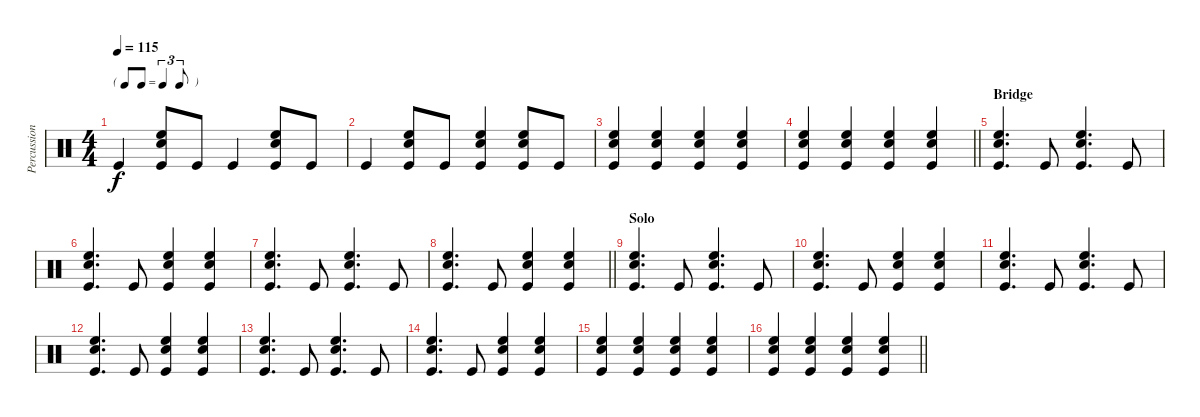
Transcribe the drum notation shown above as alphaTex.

\track ("Percussions" "Percussion") {instrument percussion}
\staff {score}
\articulation defaults
\ts (4 4)
\tf triplet8th
\tempo 115
\clef neutral
\ks c "Kick (hit)".4{dy f}
("High Floor Tom (hit)" "Snare (hit) 2" "Kick (hit)").8 "Kick (hit)".8 "Kick (hit)".4 ("High Floor Tom (hit)" "Snare (hit) 2" "Kick (hit)").8 "Kick (hit)".8 |
"Kick (hit)".4 ("High Floor Tom (hit)" "Snare (hit) 2" "Kick (hit)").8 "Kick (hit)".8 ("High Floor Tom (hit)" "Snare (hit) 2" "Kick (hit)").4 ("High Floor Tom (hit)" "Snare (hit) 2" "Kick (hit)").8 "Kick (hit)".8 |
("High Floor Tom (hit)" "Snare (hit) 2" "Kick (hit)").4 ("High Floor Tom (hit)" "Snare (hit) 2" "Kick (hit)").4 ("High Floor Tom (hit)" "Snare (hit) 2" "Kick (hit)").4 ("High Floor Tom (hit)" "Snare (hit) 2" "Kick (hit)").4 |
\barLineRight lightlight
("High Floor Tom (hit)" "Snare (hit) 2" "Kick (hit)").4 ("High Floor Tom (hit)" "Snare (hit) 2" "Kick (hit)").4 ("High Floor Tom (hit)" "Snare (hit) 2" "Kick (hit)").4 ("High Floor Tom (hit)" "Snare (hit) 2" "Kick (hit)").4 |
\section ("" "Bridge")
("High Floor Tom (hit)" "Snare (hit) 2" "Kick (hit)").4{d} "Kick (hit)".8 ("High Floor Tom (hit)" "Snare (hit) 2" "Kick (hit)").4{d} "Kick (hit)".8 |
("High Floor Tom (hit)" "Snare (hit) 2" "Kick (hit)").4{d} "Kick (hit)".8 ("High Floor Tom (hit)" "Snare (hit) 2" "Kick (hit)").4 ("High Floor Tom (hit)" "Snare (hit) 2" "Kick (hit)").4 |
("High Floor Tom (hit)" "Snare (hit) 2" "Kick (hit)").4{d} "Kick (hit)".8 ("High Floor Tom (hit)" "Snare (hit) 2" "Kick (hit)").4{d} "Kick (hit)".8 |
\barLineRight lightlight
("High Floor Tom (hit)" "Snare (hit) 2" "Kick (hit)").4{d} "Kick (hit)".8 ("High Floor Tom (hit)" "Snare (hit) 2" "Kick (hit)").4 ("High Floor Tom (hit)" "Snare (hit) 2" "Kick (hit)").4 |
\section ("" "Solo")
("High Floor Tom (hit)" "Snare (hit) 2" "Kick (hit)").4{d} "Kick (hit)".8 ("High Floor Tom (hit)" "Snare (hit) 2" "Kick (hit)").4{d} "Kick (hit)".8 |
("High Floor Tom (hit)" "Snare (hit) 2" "Kick (hit)").4{d} "Kick (hit)".8 ("High Floor Tom (hit)" "Snare (hit) 2" "Kick (hit)").4 ("High Floor Tom (hit)" "Snare (hit) 2" "Kick (hit)").4 |
("High Floor Tom (hit)" "Snare (hit) 2" "Kick (hit)").4{d} "Kick (hit)".8 ("High Floor Tom (hit)" "Snare (hit) 2" "Kick (hit)").4{d} "Kick (hit)".8 |
("High Floor Tom (hit)" "Snare (hit) 2" "Kick (hit)").4{d} "Kick (hit)".8 ("High Floor Tom (hit)" "Snare (hit) 2" "Kick (hit)").4 ("High Floor Tom (hit)" "Snare (hit) 2" "Kick (hit)").4 |
("High Floor Tom (hit)" "Snare (hit) 2" "Kick (hit)").4{d} "Kick (hit)".8 ("High Floor Tom (hit)" "Snare (hit) 2" "Kick (hit)").4{d} "Kick (hit)".8 |
("High Floor Tom (hit)" "Snare (hit) 2" "Kick (hit)").4{d} "Kick (hit)".8 ("High Floor Tom (hit)" "Snare (hit) 2" "Kick (hit)").4 ("High Floor Tom (hit)" "Snare (hit) 2" "Kick (hit)").4 |
("High Floor Tom (hit)" "Snare (hit) 2" "Kick (hit)").4 ("High Floor Tom (hit)" "Snare (hit) 2" "Kick (hit)").4 ("High Floor Tom (hit)" "Snare (hit) 2" "Kick (hit)").4 ("High Floor Tom (hit)" "Snare (hit) 2" "Kick (hit)").4 |
\barLineRight lightlight
("High Floor Tom (hit)" "Snare (hit) 2" "Kick (hit)").4 ("High Floor Tom (hit)" "Snare (hit) 2" "Kick (hit)").4 ("High Floor Tom (hit)" "Snare (hit) 2" "Kick (hit)").4 ("High Floor Tom (hit)" "Snare (hit) 2" "Kick (hit)").4
